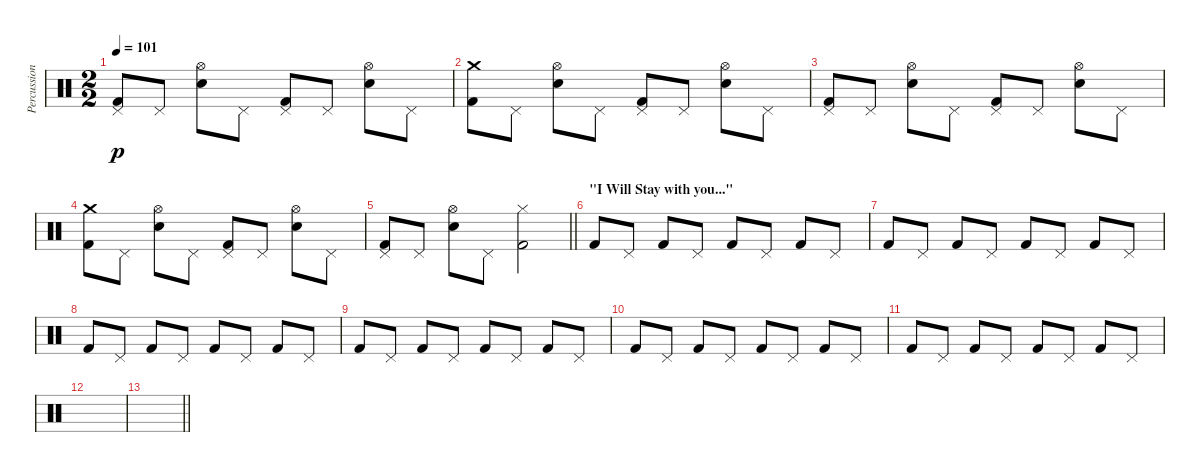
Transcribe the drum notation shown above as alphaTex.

\track ("Percussions" "Percussion") {instrument percussion}
\staff {score}
\articulation defaults
\ts (2 2)
\tempo 101
\clef neutral
\ks c
("Kick (hit) 2" "Pedal Hi-Hat (hit)").8{dy p} "Pedal Hi-Hat (hit)".8 ("Snare (hit) 2" "Hi-Hat (open)").8 "Pedal Hi-Hat (hit)".8 ("Kick (hit) 2" "Pedal Hi-Hat (hit)").8 "Pedal Hi-Hat (hit)".8 ("Snare (hit) 2" "Hi-Hat (open)").8 "Pedal Hi-Hat (hit)".8 |
("Kick (hit) 2" "Crash medium (hit)").8 "Pedal Hi-Hat (hit)".8 ("Snare (hit) 2" "Hi-Hat (open)").8 "Pedal Hi-Hat (hit)".8 ("Kick (hit) 2" "Pedal Hi-Hat (hit)").8 "Pedal Hi-Hat (hit)".8 ("Snare (hit) 2" "Hi-Hat (open)").8 "Pedal Hi-Hat (hit)".8 |
("Kick (hit) 2" "Pedal Hi-Hat (hit)").8 "Pedal Hi-Hat (hit)".8 ("Snare (hit) 2" "Hi-Hat (open)").8 "Pedal Hi-Hat (hit)".8 ("Kick (hit) 2" "Pedal Hi-Hat (hit)").8 "Pedal Hi-Hat (hit)".8 ("Snare (hit) 2" "Hi-Hat (open)").8 "Pedal Hi-Hat (hit)".8 |
("Kick (hit) 2" "Crash medium (hit)").8 "Pedal Hi-Hat (hit)".8 ("Snare (hit) 2" "Hi-Hat (open)").8 "Pedal Hi-Hat (hit)".8 ("Kick (hit) 2" "Pedal Hi-Hat (hit)").8 "Pedal Hi-Hat (hit)".8 ("Snare (hit) 2" "Hi-Hat (open)").8 "Pedal Hi-Hat (hit)".8 |
\barLineRight lightlight
("Kick (hit) 2" "Pedal Hi-Hat (hit)").8 "Pedal Hi-Hat (hit)".8 ("Snare (hit) 2" "Hi-Hat (open)").8 "Pedal Hi-Hat (hit)".8 ("Kick (hit) 2" "Hi-Hat (closed)").2 |
\section ("" "\"I Will Stay with you...\"")
"Kick (hit) 2".8 "Pedal Hi-Hat (hit)".8 "Kick (hit) 2".8 "Pedal Hi-Hat (hit)".8 "Kick (hit) 2".8 "Pedal Hi-Hat (hit)".8 "Kick (hit) 2".8 "Pedal Hi-Hat (hit)".8 |
"Kick (hit) 2".8 "Pedal Hi-Hat (hit)".8 "Kick (hit) 2".8 "Pedal Hi-Hat (hit)".8 "Kick (hit) 2".8 "Pedal Hi-Hat (hit)".8 "Kick (hit) 2".8 "Pedal Hi-Hat (hit)".8 |
"Kick (hit) 2".8 "Pedal Hi-Hat (hit)".8 "Kick (hit) 2".8 "Pedal Hi-Hat (hit)".8 "Kick (hit) 2".8 "Pedal Hi-Hat (hit)".8 "Kick (hit) 2".8 "Pedal Hi-Hat (hit)".8 |
"Kick (hit) 2".8 "Pedal Hi-Hat (hit)".8 "Kick (hit) 2".8 "Pedal Hi-Hat (hit)".8 "Kick (hit) 2".8 "Pedal Hi-Hat (hit)".8 "Kick (hit) 2".8 "Pedal Hi-Hat (hit)".8 |
"Kick (hit) 2".8 "Pedal Hi-Hat (hit)".8 "Kick (hit) 2".8 "Pedal Hi-Hat (hit)".8 "Kick (hit) 2".8 "Pedal Hi-Hat (hit)".8 "Kick (hit) 2".8 "Pedal Hi-Hat (hit)".8 |
"Kick (hit) 2".8 "Pedal Hi-Hat (hit)".8 "Kick (hit) 2".8 "Pedal Hi-Hat (hit)".8 "Kick (hit) 2".8 "Pedal Hi-Hat (hit)".8 "Kick (hit) 2".8 "Pedal Hi-Hat (hit)".8 |
|
\barLineRight lightlight
